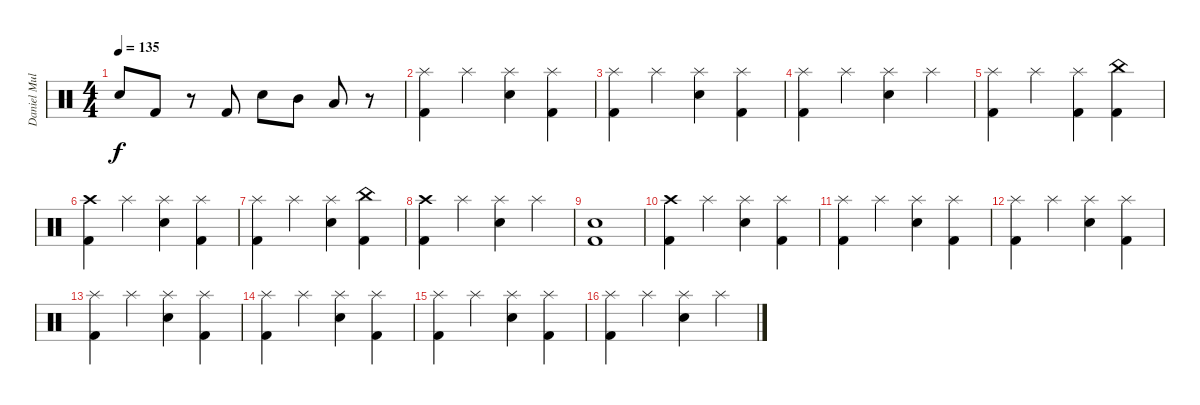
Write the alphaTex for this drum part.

\track ("Daniel Mullback" "Daniel Mul") {instrument percussion}
\staff {score}
\articulation defaults
\ts (4 4)
\tempo 135
\clef neutral
\ks c "Snare (hit) 2".8{dy f} "Kick (hit) 2".8
r.8 "Kick (hit) 2".8 "Snare (hit) 2".8 "Mid Tom (hit)".8 "Low Tom (hit)".8 r.8 |
("Splash (hit)" "Kick (hit) 2").4 "Splash (hit)".4 ("Splash (hit)" "Snare (hit) 2").4 ("Splash (hit)" "Kick (hit) 2").4 |
("Splash (hit)" "Kick (hit) 2").4 "Splash (hit)".4 ("Splash (hit)" "Snare (hit) 2").4 ("Splash (hit)" "Kick (hit) 2").4 |
("Splash (hit)" "Kick (hit) 2").4 "Splash (hit)".4 ("Splash (hit)" "Snare (hit) 2").4 "Splash (hit)".4 |
("Splash (hit)" "Kick (hit) 2").4 "Splash (hit)".4 ("Splash (hit)" "Kick (hit) 2").4 ("China (hit)" "Kick (hit) 2").4 |
("Crash high (hit)" "Kick (hit) 2").4 "Splash (hit)".4 ("Splash (hit)" "Snare (hit) 2").4 ("Splash (hit)" "Kick (hit) 2").4 |
("Splash (hit)" "Kick (hit) 2").4 "Splash (hit)".4 ("Splash (hit)" "Snare (hit) 2").4 ("China (hit)" "Kick (hit) 2").4 |
("Crash high (hit)" "Kick (hit) 2").4 "Splash (hit)".4 ("Splash (hit)" "Snare (hit) 2").4 "Splash (hit)".4 |
("Snare (hit) 2" "Kick (hit) 2").1 |
("Crash high (hit)" "Kick (hit) 2").4 "Splash (hit)".4 ("Splash (hit)" "Snare (hit) 2").4 ("Splash (hit)" "Kick (hit) 2").4 |
("Splash (hit)" "Kick (hit) 2").4 "Splash (hit)".4 ("Splash (hit)" "Snare (hit) 2").4 ("Splash (hit)" "Kick (hit) 2").4 |
("Splash (hit)" "Kick (hit) 2").4 "Splash (hit)".4 ("Splash (hit)" "Snare (hit) 2").4 ("Splash (hit)" "Kick (hit) 2").4 |
("Splash (hit)" "Kick (hit) 2").4 "Splash (hit)".4 ("Splash (hit)" "Snare (hit) 2").4 ("Splash (hit)" "Kick (hit) 2").4 |
("Splash (hit)" "Kick (hit) 2").4 "Splash (hit)".4 ("Splash (hit)" "Snare (hit) 2").4 ("Splash (hit)" "Kick (hit) 2").4 |
("Splash (hit)" "Kick (hit) 2").4 "Splash (hit)".4 ("Splash (hit)" "Snare (hit) 2").4 ("Splash (hit)" "Kick (hit) 2").4 |
("Splash (hit)" "Kick (hit) 2").4 "Splash (hit)".4 ("Splash (hit)" "Snare (hit) 2").4 "Splash (hit)".4
